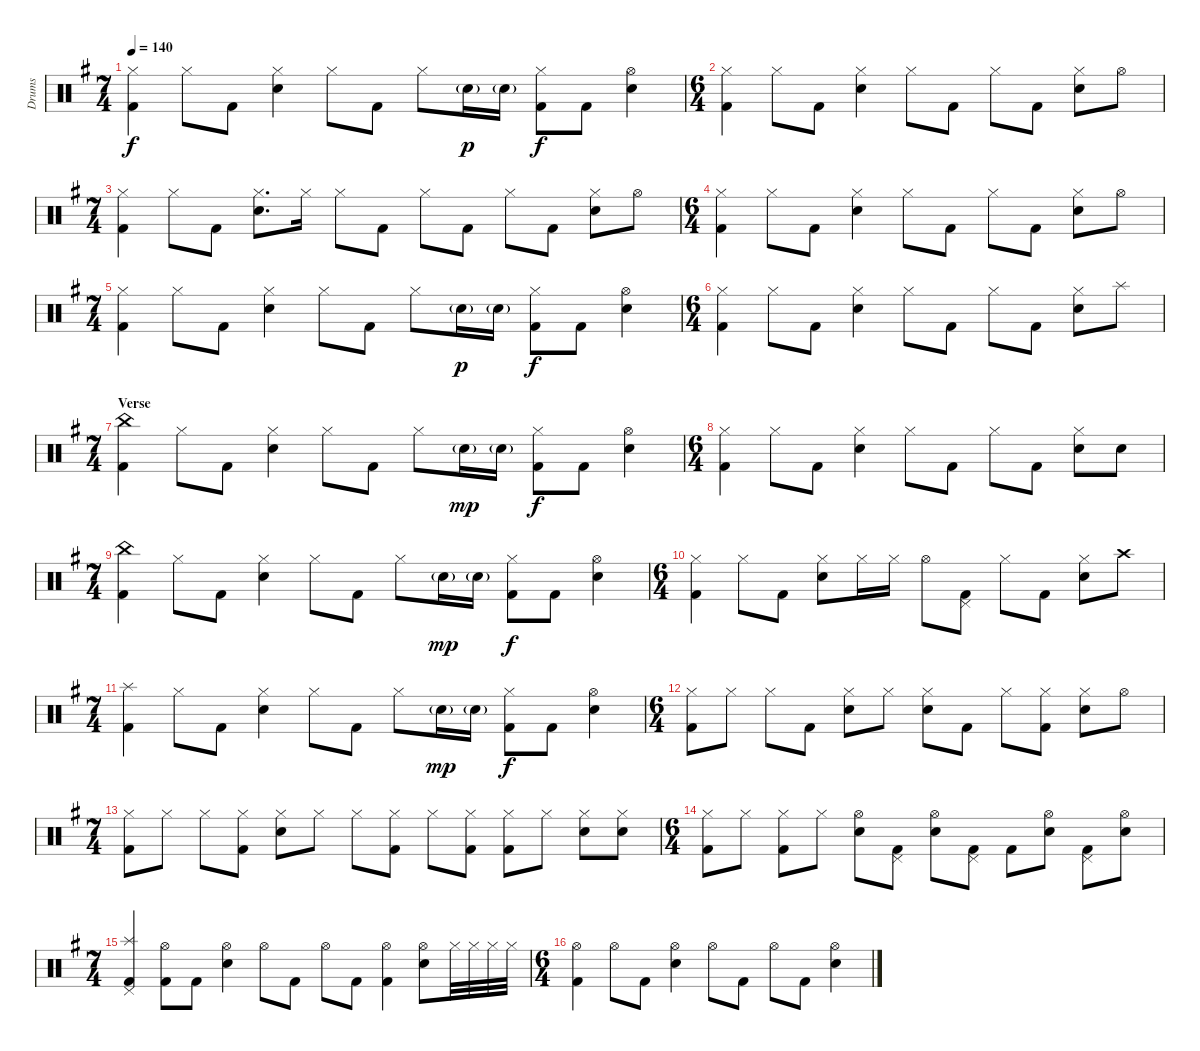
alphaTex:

\defaultSystemsLayout 4
\bracketExtendMode groupsimilarinstruments
\otherSystemsTrackNameOrientation horizontal
\track ("Drumkit" "Drums") {multiBarRest instrument percussion}
\staff {score}
\articulation defaults
\ts (7 4)
\tempo 140
\clef neutral
\ks g
("Hi-Hat (closed)"{acc forcenatural} "Kick (hit) 2"{acc forcenatural}).4{dy f} "Hi-Hat (closed)"{acc forcenatural}.8 "Kick (hit) 2"{acc forcenatural}.8 ("Hi-Hat (closed)"{acc forcenatural} "Snare (hit) 2"{acc forcenatural}).4 "Hi-Hat (closed)"{acc forcenatural}.8 "Kick (hit) 2"{acc forcenatural}.8{beam split} "Hi-Hat (closed)"{acc forcenatural}.8 "Snare (hit) 2"{g acc forcenatural}.16{dy p} "Snare (hit) 2"{g acc forcenatural}.16 ("Hi-Hat (closed)"{acc forcenatural} "Kick (hit) 2"{acc forcenatural}).8{dy f} "Kick (hit) 2"{acc forcenatural}.8 ("Hi-Hat (open)"{acc forcenatural} "Snare (hit) 2"{acc forcenatural}).4 |
\ts (6 4)
("Hi-Hat (closed)"{acc forcenatural} "Kick (hit) 2"{acc forcenatural}).4 "Hi-Hat (closed)"{acc forcenatural}.8 "Kick (hit) 2"{acc forcenatural}.8 ("Hi-Hat (closed)"{acc forcenatural} "Snare (hit) 2"{acc forcenatural}).4 "Hi-Hat (closed)"{acc forcenatural}.8 "Kick (hit) 2"{acc forcenatural}.8{beam split} "Hi-Hat (closed)"{acc forcenatural}.8 "Kick (hit) 2"{acc forcenatural}.8{beam split} ("Hi-Hat (closed)"{acc forcenatural} "Snare (hit) 2"{acc forcenatural}).8 "Hi-Hat (open)"{acc forcenatural}.8 |
\ts (7 4)
("Hi-Hat (closed)"{acc forcenatural} "Kick (hit) 2"{acc forcenatural}).4 "Hi-Hat (closed)"{acc forcenatural}.8 "Kick (hit) 2"{acc forcenatural}.8{beam split} ("Hi-Hat (closed)"{acc forcenatural} "Snare (hit) 2"{acc forcenatural}).8{d} "Hi-Hat (closed)"{acc forcenatural}.16 "Hi-Hat (closed)"{acc forcenatural}.8 "Kick (hit) 2"{acc forcenatural}.8{beam split} "Hi-Hat (closed)"{acc forcenatural}.8 "Kick (hit) 2"{acc forcenatural}.8 "Hi-Hat (closed)"{acc forcenatural}.8 "Kick (hit) 2"{acc forcenatural}.8{beam split} ("Hi-Hat (closed)"{acc forcenatural} "Snare (hit) 2"{acc forcenatural}).8 "Hi-Hat (open)"{acc forcenatural}.8 |
\ts (6 4)
("Hi-Hat (closed)"{acc forcenatural} "Kick (hit) 2"{acc forcenatural}).4 "Hi-Hat (closed)"{acc forcenatural}.8 "Kick (hit) 2"{acc forcenatural}.8 ("Hi-Hat (closed)"{acc forcenatural} "Snare (hit) 2"{acc forcenatural}).4 "Hi-Hat (closed)"{acc forcenatural}.8 "Kick (hit) 2"{acc forcenatural}.8{beam split} "Hi-Hat (closed)"{acc forcenatural}.8 "Kick (hit) 2"{acc forcenatural}.8{beam split} ("Hi-Hat (closed)"{acc forcenatural} "Snare (hit) 2"{acc forcenatural}).8 "Hi-Hat (open)"{acc forcenatural}.8 |
\ts (7 4)
("Hi-Hat (closed)"{acc forcenatural} "Kick (hit) 2"{acc forcenatural}).4 "Hi-Hat (closed)"{acc forcenatural}.8 "Kick (hit) 2"{acc forcenatural}.8 ("Hi-Hat (closed)"{acc forcenatural} "Snare (hit) 2"{acc forcenatural}).4 "Hi-Hat (closed)"{acc forcenatural}.8 "Kick (hit) 2"{acc forcenatural}.8{beam split} "Hi-Hat (closed)"{acc forcenatural}.8 "Snare (hit) 2"{g acc forcenatural}.16{dy p} "Snare (hit) 2"{g acc forcenatural}.16 ("Hi-Hat (closed)"{acc forcenatural} "Kick (hit) 2"{acc forcenatural}).8{dy f} "Kick (hit) 2"{acc forcenatural}.8 ("Hi-Hat (open)"{acc forcenatural} "Snare (hit) 2"{acc forcenatural}).4 |
\ts (6 4)
("Hi-Hat (closed)"{acc forcenatural} "Kick (hit) 2"{acc forcenatural}).4 "Hi-Hat (closed)"{acc forcenatural}.8 "Kick (hit) 2"{acc forcenatural}.8 ("Hi-Hat (closed)"{acc forcenatural} "Snare (hit) 2"{acc forcenatural}).4 "Hi-Hat (closed)"{acc forcenatural}.8 "Kick (hit) 2"{acc forcenatural}.8{beam split} "Hi-Hat (closed)"{acc forcenatural}.8 "Kick (hit) 2"{acc forcenatural}.8{beam split} ("Hi-Hat (closed)"{acc forcenatural} "Snare (hit) 2"{acc forcenatural}).8 "Splash (hit)"{acc forcenatural}.8 |
\ts (7 4)
\section ("" "Verse")
("China (hit)"{acc forcenatural} "Kick (hit) 2"{acc forcenatural}).4 "Hi-Hat (closed)"{acc forcenatural}.8 "Kick (hit) 2"{acc forcenatural}.8 ("Hi-Hat (closed)"{acc forcenatural} "Snare (hit) 2"{acc forcenatural}).4 "Hi-Hat (closed)"{acc forcenatural}.8 "Kick (hit) 2"{acc forcenatural}.8 "Hi-Hat (closed)"{acc forcenatural}.8 "Snare (hit) 2"{g acc forcenatural}.16{dy mp} "Snare (hit) 2"{g acc forcenatural}.16 ("Hi-Hat (closed)"{acc forcenatural} "Kick (hit) 2"{acc forcenatural}).8{dy f} "Kick (hit) 2"{acc forcenatural}.8 ("Hi-Hat (open)"{acc forcenatural} "Snare (hit) 2"{acc forcenatural}).4 |
\ts (6 4)
\beaming (8 2 2 2 2 2 2 2)
("Hi-Hat (closed)"{acc forcenatural} "Kick (hit) 2"{acc forcenatural}).4 "Hi-Hat (closed)"{acc forcenatural}.8 "Kick (hit) 2"{acc forcenatural}.8 ("Hi-Hat (closed)"{acc forcenatural} "Snare (hit) 2"{acc forcenatural}).4 "Hi-Hat (closed)"{acc forcenatural}.8 "Kick (hit) 2"{acc forcenatural}.8 "Hi-Hat (closed)"{acc forcenatural}.8 "Kick (hit) 2"{acc forcenatural}.8 ("Hi-Hat (closed)"{acc forcenatural} "Snare (hit) 2"{acc forcenatural}).8 "Snare (hit) 2"{acc forcenatural}.8 |
\ts (7 4)
\beaming (8 2 2 2 2 2 2 2)
("China (hit)"{acc forcenatural} "Kick (hit) 2"{acc forcenatural}).4 "Hi-Hat (closed)"{acc forcenatural}.8 "Kick (hit) 2"{acc forcenatural}.8 ("Hi-Hat (closed)"{acc forcenatural} "Snare (hit) 2"{acc forcenatural}).4 "Hi-Hat (closed)"{acc forcenatural}.8 "Kick (hit) 2"{acc forcenatural}.8 "Hi-Hat (closed)"{acc forcenatural}.8 "Snare (hit) 2"{g acc forcenatural}.16{dy mp} "Snare (hit) 2"{g acc forcenatural}.16 ("Hi-Hat (closed)"{acc forcenatural} "Kick (hit) 2"{acc forcenatural}).8{dy f} "Kick (hit) 2"{acc forcenatural}.8 ("Hi-Hat (open)"{acc forcenatural} "Snare (hit) 2"{acc forcenatural}).4 |
\ts (6 4)
\beaming (8 2 2 2 2 2 2 2)
("Hi-Hat (closed)"{acc forcenatural} "Kick (hit) 2"{acc forcenatural}).4 "Hi-Hat (closed)"{acc forcenatural}.8 "Kick (hit) 2"{acc forcenatural}.8 ("Hi-Hat (closed)"{acc forcenatural} "Snare (hit) 2"{acc forcenatural}).8 "Hi-Hat (closed)"{acc forcenatural}.16 "Hi-Hat (closed)"{acc forcenatural}.16 "Hi-Hat (open)"{acc forcenatural}.8 ("Pedal Hi-Hat (hit)"{acc forcenatural} "Kick (hit) 2"{acc forcenatural}).8 "Hi-Hat (closed)"{acc forcenatural}.8 "Kick (hit) 2"{acc forcenatural}.8 ("Hi-Hat (closed)"{acc forcenatural} "Snare (hit) 2"{acc forcenatural}).8 "Crash high (hit)"{acc forcenatural}.8 |
\ts (7 4)
\beaming (8 2 2 2 2 2 2 2)
("Splash (hit)"{acc forcenatural} "Kick (hit) 2"{acc forcenatural}).4 "Hi-Hat (closed)"{acc forcenatural}.8 "Kick (hit) 2"{acc forcenatural}.8 ("Hi-Hat (closed)"{acc forcenatural} "Snare (hit) 2"{acc forcenatural}).4 "Hi-Hat (closed)"{acc forcenatural}.8 "Kick (hit) 2"{acc forcenatural}.8 "Hi-Hat (closed)"{acc forcenatural}.8 "Snare (hit) 2"{g acc forcenatural}.16{dy mp} "Snare (hit) 2"{g acc forcenatural}.16 ("Hi-Hat (closed)"{acc forcenatural} "Kick (hit) 2"{acc forcenatural}).8{dy f} "Kick (hit) 2"{acc forcenatural}.8 ("Hi-Hat (open)"{acc forcenatural} "Snare (hit) 2"{acc forcenatural}).4 |
\ts (6 4)
\beaming (8 2 2 2 2 2 2 2)
("Hi-Hat (closed)"{acc forcenatural} "Kick (hit) 2"{acc forcenatural}).8 "Hi-Hat (closed)"{acc forcenatural}.8 "Hi-Hat (closed)"{acc forcenatural}.8 "Kick (hit) 2"{acc forcenatural}.8 ("Hi-Hat (closed)"{acc forcenatural} "Snare (hit) 2"{acc forcenatural}).8 "Hi-Hat (closed)"{acc forcenatural}.8 ("Hi-Hat (closed)"{acc forcenatural} "Snare (hit) 2"{acc forcenatural}).8 "Kick (hit) 2"{acc forcenatural}.8 "Hi-Hat (closed)"{acc forcenatural}.8 ("Kick (hit) 2"{acc forcenatural} "Hi-Hat (closed)"{acc forcenatural}).8 ("Hi-Hat (closed)"{acc forcenatural} "Snare (hit) 2"{acc forcenatural}).8 "Hi-Hat (open)"{acc forcenatural}.8 |
\ts (7 4)
\beaming (8 2 2 2 2 2 2 2)
("Hi-Hat (closed)"{acc forcenatural} "Kick (hit) 2"{acc forcenatural}).8 "Hi-Hat (closed)"{acc forcenatural}.8 "Hi-Hat (closed)"{acc forcenatural}.8 ("Hi-Hat (closed)"{acc forcenatural} "Kick (hit) 2"{acc forcenatural}).8 ("Hi-Hat (closed)"{acc forcenatural} "Snare (hit) 2"{acc forcenatural}).8 "Hi-Hat (closed)"{acc forcenatural}.8 "Hi-Hat (closed)"{acc forcenatural}.8 ("Hi-Hat (closed)"{acc forcenatural} "Kick (hit) 2"{acc forcenatural}).8 "Hi-Hat (closed)"{acc forcenatural}.8 ("Hi-Hat (closed)"{acc forcenatural} "Kick (hit) 2"{acc forcenatural}).8 ("Hi-Hat (closed)"{acc forcenatural} "Kick (hit) 2"{acc forcenatural}).8 "Hi-Hat (closed)"{acc forcenatural}.8 ("Hi-Hat (closed)"{acc forcenatural} "Snare (hit) 2"{acc forcenatural}).8 ("Hi-Hat (closed)"{acc forcenatural} "Snare (hit) 2"{acc forcenatural}).8 |
\ts (6 4)
\beaming (8 2 2 2 2 2 2 2)
("Hi-Hat (closed)"{acc forcenatural} "Kick (hit) 2"{acc forcenatural}).8 "Hi-Hat (closed)"{acc forcenatural}.8 ("Hi-Hat (closed)"{acc forcenatural} "Kick (hit) 2"{acc forcenatural}).8 "Hi-Hat (closed)"{acc forcenatural}.8 ("Hi-Hat (open)"{acc forcenatural} "Snare (hit) 2"{acc forcenatural}).8 ("Kick (hit) 2"{acc forcenatural} "Pedal Hi-Hat (hit)"{acc forcenatural}).8 ("Hi-Hat (open)"{acc forcenatural} "Snare (hit) 2"{acc forcenatural}).8 ("Kick (hit) 2"{acc forcenatural} "Pedal Hi-Hat (hit)"{acc forcenatural}).8 "Kick (hit) 2"{acc forcenatural}.8 ("Hi-Hat (open)"{acc forcenatural} "Snare (hit) 2"{acc forcenatural}).8 ("Kick (hit) 2"{acc forcenatural} "Pedal Hi-Hat (hit)"{acc forcenatural}).8 ("Hi-Hat (open)"{acc forcenatural} "Snare (hit) 2"{acc forcenatural}).8 |
\ts (7 4)
\beaming (8 2 2 2 2 2 2 2)
("Splash (hit)"{acc forcenatural} "Kick (hit) 2"{acc forcenatural} "Pedal Hi-Hat (hit)"{acc forcenatural}).4 ("Hi-Hat (open)"{acc forcenatural} "Kick (hit) 2"{acc forcenatural}).8 "Kick (hit) 2"{acc forcenatural}.8 ("Hi-Hat (open)"{acc forcenatural} "Snare (hit) 2"{acc forcenatural}).4 "Hi-Hat (open)"{acc forcenatural}.8 "Kick (hit) 2"{acc forcenatural}.8 "Hi-Hat (open)"{acc forcenatural}.8 "Kick (hit) 2"{acc forcenatural}.8 ("Hi-Hat (open)"{acc forcenatural} "Kick (hit) 2"{acc forcenatural}).4 ("Hi-Hat (open)"{acc forcenatural} "Snare (hit) 2"{acc forcenatural}).8 "Hi-Hat (closed)"{acc forcenatural}.32 "Hi-Hat (closed)"{acc forcenatural}.32 "Hi-Hat (closed)"{acc forcenatural}.32 "Hi-Hat (closed)"{acc forcenatural}.32 |
\ts (6 4)
\beaming (8 2 2 2 2 2 2 2)
("Hi-Hat (open)"{acc forcenatural} "Kick (hit) 2"{acc forcenatural}).4 "Hi-Hat (open)"{acc forcenatural}.8 "Kick (hit) 2"{acc forcenatural}.8 ("Hi-Hat (open)"{acc forcenatural} "Snare (hit) 2"{acc forcenatural}).4 "Hi-Hat (open)"{acc forcenatural}.8 "Kick (hit) 2"{acc forcenatural}.8 "Hi-Hat (open)"{acc forcenatural}.8 "Kick (hit) 2"{acc forcenatural}.8 ("Hi-Hat (open)"{acc forcenatural} "Snare (hit) 2"{acc forcenatural}).4
